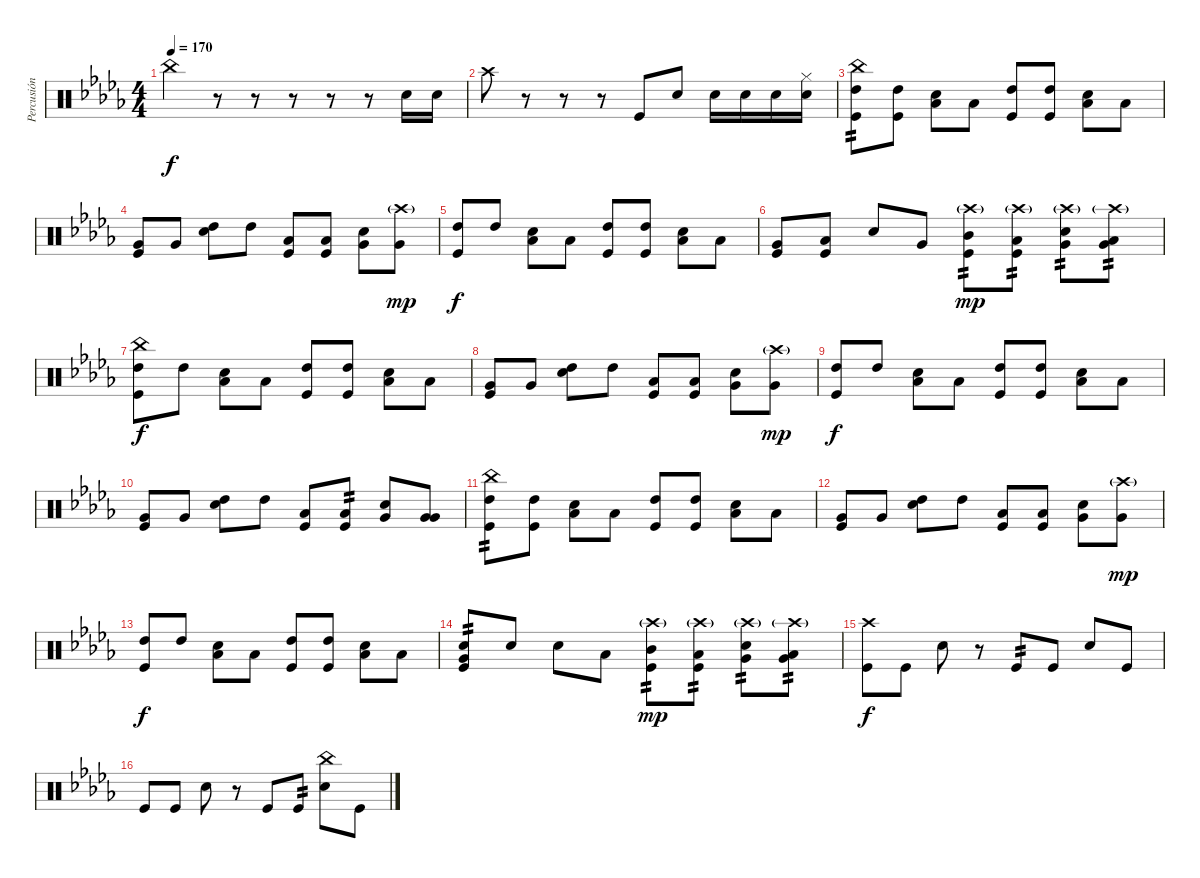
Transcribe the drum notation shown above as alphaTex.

\track ("Percusión" "Percusión") {instrument percussion}
\staff {score}
\articulation defaults
\ts (4 4)
\tempo 170
\clef neutral
\ks db "China (hit)".4{dy f}
r.8 r.8 r.8 r.8 r.8 "Electric Snare (hit)".16 "Electric Snare (hit)".16 |
"Crash high (hit)".8 r.8 r.8 r.8 "Kick (hit)".8 "Electric Snare (hit)".8 "Electric Snare (hit)".16 "Electric Snare (hit)".16 "Electric Snare (hit)".16 ("Hi-Hat (closed)" "Electric Snare (hit)").16 |
("China (hit)" "High Tom (hit)" "Kick (hit)").8{tp 2} ("High Tom (hit)" "Kick (hit)").8 ("Low Tom (hit)" "Electric Snare (hit)").8 "Low Tom (hit)".8 ("High Tom (hit)" "Kick (hit)").8 ("High Tom (hit)" "Kick (hit)").8 ("Low Tom (hit)" "Electric Snare (hit)").8 "Low Tom (hit)".8 |
("Very Low Tom (hit)" "Kick (hit)").8 "Very Low Tom (hit)".8 ("High Tom (hit)" "Electric Snare (hit)").8 "High Tom (hit)".8 ("Low Floor Tom (hit)" "Kick (hit)").8 ("Low Floor Tom (hit)" "Kick (hit)").8 ("Very Low Tom (hit)" "Electric Snare (hit)").8 ("Crash high (hit)"{g} "Very Low Tom (hit)").8{dy mp} |
("High Tom (hit)" "Kick (hit)").8{dy f} "High Tom (hit)".8 ("Low Tom (hit)" "Electric Snare (hit)").8 "Low Tom (hit)".8 ("High Tom (hit)" "Kick (hit)").8 ("High Tom (hit)" "Kick (hit)").8 ("Low Tom (hit)" "Electric Snare (hit)").8 "Low Tom (hit)".8 |
("Very Low Tom (hit)" "Kick (hit)").8 ("Low Floor Tom (hit)" "Kick (hit)").8 "Electric Snare (hit)".8 "Very Low Tom (hit)".8 ("Crash high (hit)"{g} "Mid Tom (hit)" "Kick (hit)").8{tp 2 dy mp} ("Crash high (hit)"{g} "Low Tom (hit)" "Kick (hit)").8{tp 2} ("Crash high (hit)"{g} "Very Low Tom (hit)" "Electric Snare (hit)").8{tp 2} ("Crash high (hit)"{g} "Low Floor Tom (hit)" "Very Low Tom (hit)").8{tp 2} |
("China (hit)" "High Tom (hit)" "Kick (hit)").8{dy f} "High Tom (hit)".8 ("Low Tom (hit)" "Electric Snare (hit)").8 "Low Tom (hit)".8 ("High Tom (hit)" "Kick (hit)").8 ("High Tom (hit)" "Kick (hit)").8 ("Low Tom (hit)" "Electric Snare (hit)").8 "Low Tom (hit)".8 |
("Very Low Tom (hit)" "Kick (hit)").8 "Very Low Tom (hit)".8 ("High Tom (hit)" "Electric Snare (hit)").8 "High Tom (hit)".8 ("Low Floor Tom (hit)" "Kick (hit)").8 ("Low Floor Tom (hit)" "Kick (hit)").8 ("Very Low Tom (hit)" "Electric Snare (hit)").8 ("Crash high (hit)"{g} "Very Low Tom (hit)").8{dy mp} |
("High Tom (hit)" "Kick (hit)").8{dy f} "High Tom (hit)".8 ("Low Tom (hit)" "Electric Snare (hit)").8 "Low Tom (hit)".8 ("High Tom (hit)" "Kick (hit)").8 ("High Tom (hit)" "Kick (hit)").8 ("Low Tom (hit)" "Electric Snare (hit)").8 "Low Tom (hit)".8 |
("Very Low Tom (hit)" "Kick (hit)").8 "Very Low Tom (hit)".8 ("High Tom (hit)" "Electric Snare (hit)").8 "High Tom (hit)".8 ("Low Floor Tom (hit)" "Kick (hit)").8 ("Low Floor Tom (hit)" "Kick (hit)").8{tp 2} ("Very Low Tom (hit)" "Electric Snare (hit)").8 ("Very Low Tom (hit)" "Very Low Tom (hit)").8 |
("China (hit)" "High Tom (hit)" "Kick (hit)").8{tp 2} ("High Tom (hit)" "Kick (hit)").8 ("Low Tom (hit)" "Electric Snare (hit)").8 "Low Tom (hit)".8 ("High Tom (hit)" "Kick (hit)").8 ("High Tom (hit)" "Kick (hit)").8 ("Low Tom (hit)" "Electric Snare (hit)").8 "Low Tom (hit)".8 |
("Very Low Tom (hit)" "Kick (hit)").8 "Very Low Tom (hit)".8 ("High Tom (hit)" "Electric Snare (hit)").8 "High Tom (hit)".8 ("Low Floor Tom (hit)" "Kick (hit)").8 ("Low Floor Tom (hit)" "Kick (hit)").8 ("Very Low Tom (hit)" "Electric Snare (hit)").8 ("Crash high (hit)"{g} "Very Low Tom (hit)").8{dy mp} |
("High Tom (hit)" "Kick (hit)").8{dy f} "High Tom (hit)".8 ("Low Tom (hit)" "Electric Snare (hit)").8 "Low Tom (hit)".8 ("High Tom (hit)" "Kick (hit)").8 ("High Tom (hit)" "Kick (hit)").8 ("Low Tom (hit)" "Electric Snare (hit)").8 "Low Tom (hit)".8 |
("Very Low Tom (hit)" "Electric Snare (hit)" "Kick (hit)").8{tp 2} "Electric Snare (hit)".8 "Electric Snare (hit)".8 "Low Floor Tom (hit)".8 ("Crash high (hit)"{g} "Mid Tom (hit)" "Kick (hit)").8{tp 2 dy mp} ("Crash high (hit)"{g} "Low Tom (hit)" "Kick (hit)").8{tp 2} ("Crash high (hit)"{g} "Very Low Tom (hit)" "Electric Snare (hit)").8{tp 2} ("Crash high (hit)"{g} "Low Floor Tom (hit)" "Very Low Tom (hit)").8{tp 2} |
("Crash high (hit)" "Kick (hit)").8{dy f} "Kick (hit)".8 "Electric Snare (hit)".8 r.8 "Kick (hit)".8{tp 2} "Kick (hit)".8 "Electric Snare (hit)".8 "Kick (hit)".8 |
"Kick (hit)".8 "Kick (hit)".8 "Electric Snare (hit)".8 r.8 "Kick (hit)".8 "Kick (hit)".8{tp 2} ("China (hit)" "Electric Snare (hit)").8 "Kick (hit)".8
